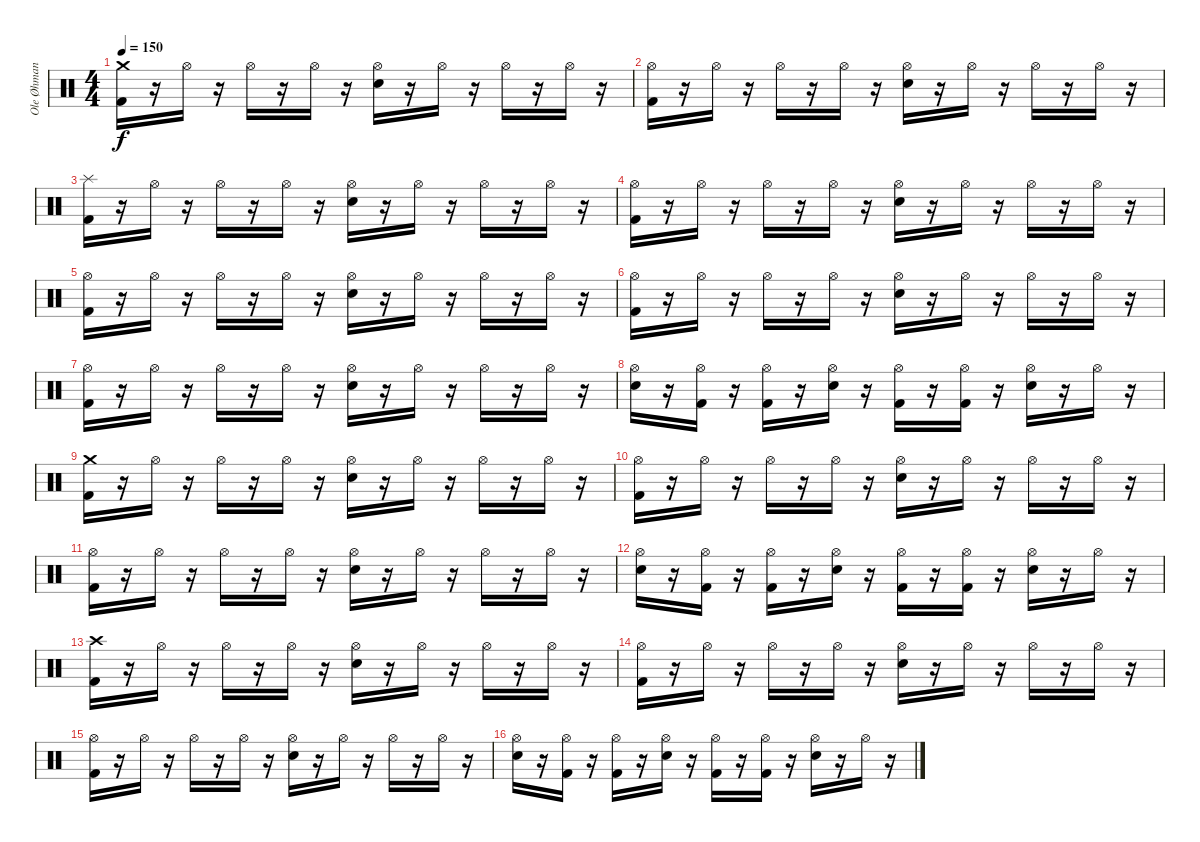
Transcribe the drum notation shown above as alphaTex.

\track ("Ole Øhman (Trommur)" "Ole Øhman ") {instrument percussion}
\staff {score}
\articulation defaults
\ts (4 4)
\tempo 150
\clef neutral
\ks c
("Crash medium (hit)" "Kick (hit) 2").16{dy f} r.16 "Hi-Hat (open)".16 r.16 "Hi-Hat (open)".16 r.16 "Hi-Hat (open)".16 r.16 ("Hi-Hat (open)" "Electric Snare (hit)").16 r.16 "Hi-Hat (open)".16 r.16 "Hi-Hat (open)".16 r.16 "Hi-Hat (open)".16 r.16 |
("Hi-Hat (open)" "Kick (hit) 2").16 r.16 "Hi-Hat (open)".16 r.16 "Hi-Hat (open)".16 r.16 "Hi-Hat (open)".16 r.16 ("Hi-Hat (open)" "Electric Snare (hit)").16 r.16 "Hi-Hat (open)".16 r.16 "Hi-Hat (open)".16 r.16 "Hi-Hat (open)".16 r.16 |
("Splash (hit)" "Kick (hit) 2").16 r.16 "Hi-Hat (open)".16 r.16 "Hi-Hat (open)".16 r.16 "Hi-Hat (open)".16 r.16 ("Hi-Hat (open)" "Electric Snare (hit)").16 r.16 "Hi-Hat (open)".16 r.16 "Hi-Hat (open)".16 r.16 "Hi-Hat (open)".16 r.16 |
("Hi-Hat (open)" "Kick (hit) 2").16 r.16 "Hi-Hat (open)".16 r.16 "Hi-Hat (open)".16 r.16 "Hi-Hat (open)".16 r.16 ("Hi-Hat (open)" "Electric Snare (hit)").16 r.16 "Hi-Hat (open)".16 r.16 "Hi-Hat (open)".16 r.16 "Hi-Hat (open)".16 r.16 |
("Hi-Hat (open)" "Kick (hit) 2").16 r.16 "Hi-Hat (open)".16 r.16 "Hi-Hat (open)".16 r.16 "Hi-Hat (open)".16 r.16 ("Hi-Hat (open)" "Electric Snare (hit)").16 r.16 "Hi-Hat (open)".16 r.16 "Hi-Hat (open)".16 r.16 "Hi-Hat (open)".16 r.16 |
("Hi-Hat (open)" "Kick (hit) 2").16 r.16 "Hi-Hat (open)".16 r.16 "Hi-Hat (open)".16 r.16 "Hi-Hat (open)".16 r.16 ("Hi-Hat (open)" "Electric Snare (hit)").16 r.16 "Hi-Hat (open)".16 r.16 "Hi-Hat (open)".16 r.16 "Hi-Hat (open)".16 r.16 |
("Hi-Hat (open)" "Kick (hit) 2").16 r.16 "Hi-Hat (open)".16 r.16 "Hi-Hat (open)".16 r.16 "Hi-Hat (open)".16 r.16 ("Hi-Hat (open)" "Electric Snare (hit)").16 r.16 "Hi-Hat (open)".16 r.16 "Hi-Hat (open)".16 r.16 "Hi-Hat (open)".16 r.16 |
("Hi-Hat (open)" "Electric Snare (hit)").16 r.16 ("Hi-Hat (open)" "Kick (hit) 2").16 r.16 ("Hi-Hat (open)" "Kick (hit) 2").16 r.16 ("Hi-Hat (open)" "Electric Snare (hit)").16 r.16 ("Hi-Hat (open)" "Kick (hit) 2").16 r.16 ("Hi-Hat (open)" "Kick (hit) 2").16 r.16 ("Hi-Hat (open)" "Electric Snare (hit)").16 r.16 "Hi-Hat (open)".16 r.16 |
("Crash medium (hit)" "Kick (hit) 2").16 r.16 "Hi-Hat (open)".16 r.16 "Hi-Hat (open)".16 r.16 "Hi-Hat (open)".16 r.16 ("Hi-Hat (open)" "Electric Snare (hit)").16 r.16 "Hi-Hat (open)".16 r.16 "Hi-Hat (open)".16 r.16 "Hi-Hat (open)".16 r.16 |
("Hi-Hat (open)" "Kick (hit) 2").16 r.16 "Hi-Hat (open)".16 r.16 "Hi-Hat (open)".16 r.16 "Hi-Hat (open)".16 r.16 ("Hi-Hat (open)" "Electric Snare (hit)").16 r.16 "Hi-Hat (open)".16 r.16 "Hi-Hat (open)".16 r.16 "Hi-Hat (open)".16 r.16 |
("Hi-Hat (open)" "Kick (hit) 2").16 r.16 "Hi-Hat (open)".16 r.16 "Hi-Hat (open)".16 r.16 "Hi-Hat (open)".16 r.16 ("Hi-Hat (open)" "Electric Snare (hit)").16 r.16 "Hi-Hat (open)".16 r.16 "Hi-Hat (open)".16 r.16 "Hi-Hat (open)".16 r.16 |
("Hi-Hat (open)" "Electric Snare (hit)").16 r.16 ("Hi-Hat (open)" "Kick (hit) 2").16 r.16 ("Hi-Hat (open)" "Kick (hit) 2").16 r.16 ("Hi-Hat (open)" "Electric Snare (hit)").16 r.16 ("Hi-Hat (open)" "Kick (hit) 2").16 r.16 ("Hi-Hat (open)" "Kick (hit) 2").16 r.16 ("Hi-Hat (open)" "Electric Snare (hit)").16 r.16 "Hi-Hat (open)".16 r.16 |
("Crash high (hit)" "Kick (hit) 2").16 r.16 "Hi-Hat (open)".16 r.16 "Hi-Hat (open)".16 r.16 "Hi-Hat (open)".16 r.16 ("Hi-Hat (open)" "Electric Snare (hit)").16 r.16 "Hi-Hat (open)".16 r.16 "Hi-Hat (open)".16 r.16 "Hi-Hat (open)".16 r.16 |
("Hi-Hat (open)" "Kick (hit) 2").16 r.16 "Hi-Hat (open)".16 r.16 "Hi-Hat (open)".16 r.16 "Hi-Hat (open)".16 r.16 ("Hi-Hat (open)" "Electric Snare (hit)").16 r.16 "Hi-Hat (open)".16 r.16 "Hi-Hat (open)".16 r.16 "Hi-Hat (open)".16 r.16 |
("Hi-Hat (open)" "Kick (hit) 2").16 r.16 "Hi-Hat (open)".16 r.16 "Hi-Hat (open)".16 r.16 "Hi-Hat (open)".16 r.16 ("Hi-Hat (open)" "Electric Snare (hit)").16 r.16 "Hi-Hat (open)".16 r.16 "Hi-Hat (open)".16 r.16 "Hi-Hat (open)".16 r.16 |
("Hi-Hat (open)" "Electric Snare (hit)").16 r.16 ("Hi-Hat (open)" "Kick (hit) 2").16 r.16 ("Hi-Hat (open)" "Kick (hit) 2").16 r.16 ("Hi-Hat (open)" "Electric Snare (hit)").16 r.16 ("Hi-Hat (open)" "Kick (hit) 2").16 r.16 ("Hi-Hat (open)" "Kick (hit) 2").16 r.16 ("Hi-Hat (open)" "Electric Snare (hit)").16 r.16 "Hi-Hat (open)".16 r.16
